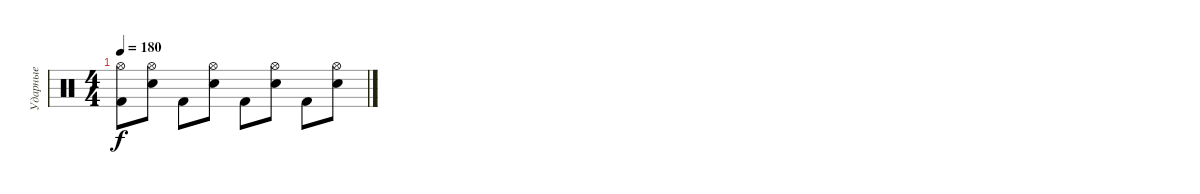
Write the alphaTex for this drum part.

\track ("Ударные" "Ударные") {instrument percussion}
\staff {score}
\articulation defaults
\ts (4 4)
\tempo 180
\clef neutral
\ks c
("Hi-Hat (open)" "Kick (hit) 2").8{dy f} ("Hi-Hat (open)" "Electric Snare (hit)").8 "Kick (hit) 2".8 ("Hi-Hat (open)" "Electric Snare (hit)").8 "Kick (hit) 2".8 ("Hi-Hat (open)" "Electric Snare (hit)").8 "Kick (hit) 2".8 ("Hi-Hat (open)" "Electric Snare (hit)").8
